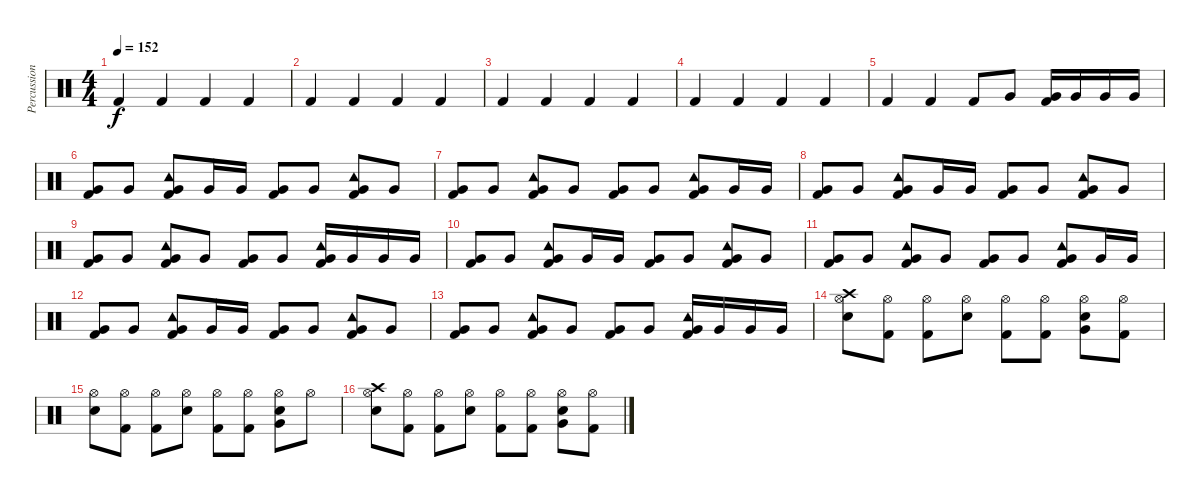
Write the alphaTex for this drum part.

\track ("Percussion" "Percussion") {instrument percussion}
\staff {score}
\articulation defaults
\ts (4 4)
\tempo 152
\clef neutral
\ks c "Kick (hit) 2".4{dy f} "Kick (hit) 2".4 "Kick (hit) 2".4 "Kick (hit) 2".4
|
"Kick (hit) 2".4 "Kick (hit) 2".4 "Kick (hit) 2".4 "Kick (hit) 2".4 |
"Kick (hit) 2".4 "Kick (hit) 2".4 "Kick (hit) 2".4 "Kick (hit) 2".4 |
"Kick (hit) 2".4 "Kick (hit) 2".4 "Kick (hit) 2".4 "Kick (hit) 2".4 |
"Kick (hit) 2".4 "Kick (hit) 2".4 "Kick (hit) 2".8 "Very Low Tom (hit)".8 ("Very Low Tom (hit)" "Kick (hit) 2").16 "Very Low Tom (hit)".16 "Very Low Tom (hit)".16 "Very Low Tom (hit)".16 |
("Very Low Tom (hit)" "Kick (hit) 2").8 "Very Low Tom (hit)".8 ("Tambourine (hit)" "Very Low Tom (hit)" "Kick (hit) 2").8 "Very Low Tom (hit)".16 "Very Low Tom (hit)".16 ("Very Low Tom (hit)" "Kick (hit) 2").8 "Very Low Tom (hit)".8 ("Tambourine (hit)" "Very Low Tom (hit)" "Kick (hit) 2").8 "Very Low Tom (hit)".8 |
("Very Low Tom (hit)" "Kick (hit) 2").8 "Very Low Tom (hit)".8 ("Tambourine (hit)" "Very Low Tom (hit)" "Kick (hit) 2").8 "Very Low Tom (hit)".8 ("Very Low Tom (hit)" "Kick (hit) 2").8 "Very Low Tom (hit)".8 ("Tambourine (hit)" "Very Low Tom (hit)" "Kick (hit) 2").8 "Very Low Tom (hit)".16 "Very Low Tom (hit)".16 |
("Very Low Tom (hit)" "Kick (hit) 2").8 "Very Low Tom (hit)".8 ("Tambourine (hit)" "Very Low Tom (hit)" "Kick (hit) 2").8 "Very Low Tom (hit)".16 "Very Low Tom (hit)".16 ("Very Low Tom (hit)" "Kick (hit) 2").8 "Very Low Tom (hit)".8 ("Tambourine (hit)" "Very Low Tom (hit)" "Kick (hit) 2").8 "Very Low Tom (hit)".8 |
("Very Low Tom (hit)" "Kick (hit) 2").8 "Very Low Tom (hit)".8 ("Tambourine (hit)" "Very Low Tom (hit)" "Kick (hit) 2").8 "Very Low Tom (hit)".8 ("Very Low Tom (hit)" "Kick (hit) 2").8 "Very Low Tom (hit)".8 ("Tambourine (hit)" "Very Low Tom (hit)" "Kick (hit) 2").16 "Very Low Tom (hit)".16 "Very Low Tom (hit)".16 "Very Low Tom (hit)".16 |
("Very Low Tom (hit)" "Kick (hit) 2").8 "Very Low Tom (hit)".8 ("Tambourine (hit)" "Very Low Tom (hit)" "Kick (hit) 2").8 "Very Low Tom (hit)".16 "Very Low Tom (hit)".16 ("Very Low Tom (hit)" "Kick (hit) 2").8 "Very Low Tom (hit)".8 ("Tambourine (hit)" "Very Low Tom (hit)" "Kick (hit) 2").8 "Very Low Tom (hit)".8 |
("Very Low Tom (hit)" "Kick (hit) 2").8 "Very Low Tom (hit)".8 ("Tambourine (hit)" "Very Low Tom (hit)" "Kick (hit) 2").8 "Very Low Tom (hit)".8 ("Very Low Tom (hit)" "Kick (hit) 2").8 "Very Low Tom (hit)".8 ("Tambourine (hit)" "Very Low Tom (hit)" "Kick (hit) 2").8 "Very Low Tom (hit)".16 "Very Low Tom (hit)".16 |
("Very Low Tom (hit)" "Kick (hit) 2").8 "Very Low Tom (hit)".8 ("Tambourine (hit)" "Very Low Tom (hit)" "Kick (hit) 2").8 "Very Low Tom (hit)".16 "Very Low Tom (hit)".16 ("Very Low Tom (hit)" "Kick (hit) 2").8 "Very Low Tom (hit)".8 ("Tambourine (hit)" "Very Low Tom (hit)" "Kick (hit) 2").8 "Very Low Tom (hit)".8 |
("Very Low Tom (hit)" "Kick (hit) 2").8 "Very Low Tom (hit)".8 ("Tambourine (hit)" "Very Low Tom (hit)" "Kick (hit) 2").8 "Very Low Tom (hit)".8 ("Very Low Tom (hit)" "Kick (hit) 2").8 "Very Low Tom (hit)".8 ("Tambourine (hit)" "Very Low Tom (hit)" "Kick (hit) 2").16 "Very Low Tom (hit)".16 "Very Low Tom (hit)".16 "Very Low Tom (hit)".16 |
("Crash high (hit)" "Hi-Hat (open)" "Snare (hit) 2").8 ("Hi-Hat (open)" "Kick (hit) 2").8 ("Hi-Hat (open)" "Kick (hit) 2").8 ("Hi-Hat (open)" "Snare (hit) 2").8 ("Hi-Hat (open)" "Kick (hit) 2").8 ("Hi-Hat (open)" "Kick (hit) 2").8 ("Hi-Hat (open)" "Very Low Tom (hit)" "Snare (hit) 2").8 ("Hi-Hat (open)" "Kick (hit) 2").8 |
("Hi-Hat (open)" "Snare (hit) 2").8 ("Hi-Hat (open)" "Kick (hit) 2").8 ("Hi-Hat (open)" "Kick (hit) 2").8 ("Hi-Hat (open)" "Snare (hit) 2").8 ("Hi-Hat (open)" "Kick (hit) 2").8 ("Hi-Hat (open)" "Kick (hit) 2").8 ("Hi-Hat (open)" "Very Low Tom (hit)" "Snare (hit) 2").8 "Hi-Hat (open)".8 |
("Crash high (hit)" "Hi-Hat (open)" "Snare (hit) 2").8 ("Hi-Hat (open)" "Kick (hit) 2").8 ("Hi-Hat (open)" "Kick (hit) 2").8 ("Hi-Hat (open)" "Snare (hit) 2").8 ("Hi-Hat (open)" "Kick (hit) 2").8 ("Hi-Hat (open)" "Kick (hit) 2").8 ("Hi-Hat (open)" "Very Low Tom (hit)" "Snare (hit) 2").8 ("Hi-Hat (open)" "Kick (hit) 2").8
